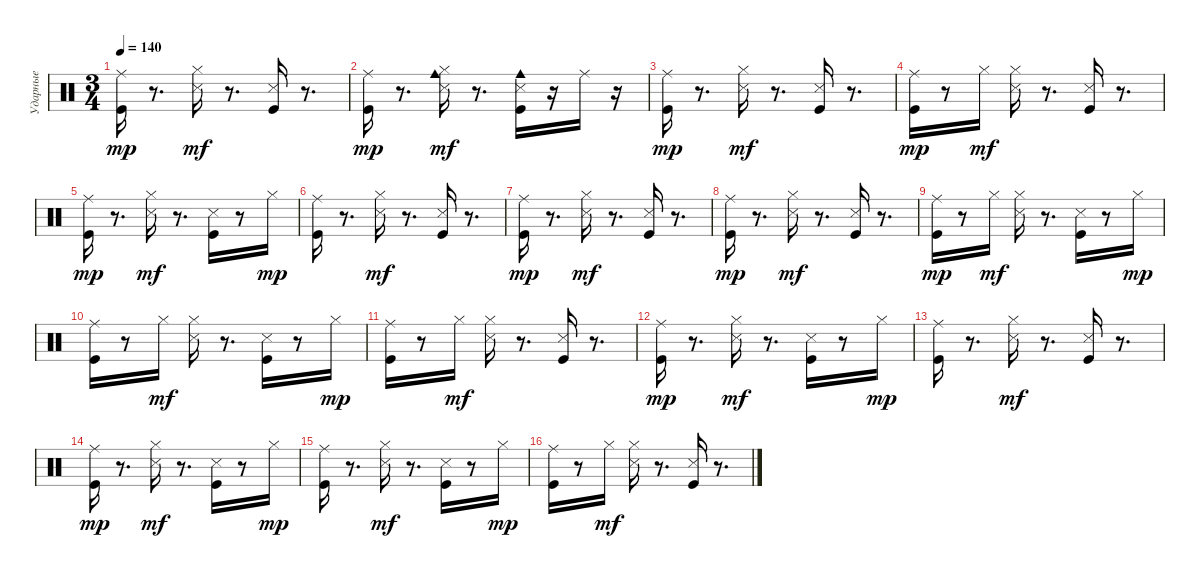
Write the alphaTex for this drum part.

\track ("Ударные" "Ударные") {instrument percussion}
\staff {score}
\articulation defaults
\ts (3 4)
\tempo 140
\clef neutral
\ks c
("Kick (hit)" "Ride (middle)").16{dy mp} r.8{d} ("Hi-Hat (closed)" "Snare (side stick) 3").16{dy mf} r.8{d} ("Kick (hit)" "Snare (side stick) 3").16 r.8{d} |
("Kick (hit)" "Ride (middle)").16{dy mp} r.8{d} ("Hi-Hat (closed)" "Snare (side stick) 3" "Cowbell medium (hit)").16{dy mf} r.8{d} ("Kick (hit)" "Snare (side stick) 3" "Cowbell medium (hit)").16 r.16 "Ride (middle)".16 r.16 |
("Kick (hit)" "Ride (middle)").16{dy mp} r.8{d} ("Hi-Hat (closed)" "Snare (side stick) 3").16{dy mf} r.8{d} ("Kick (hit)" "Snare (side stick) 3").16 r.8{d} |
("Kick (hit)" "Ride (middle)").16{dy mp} r.8 "Hi-Hat (closed)".16{dy mf} ("Hi-Hat (closed)" "Snare (side stick) 3").16 r.8{d} ("Kick (hit)" "Snare (side stick) 3").16 r.8{d} |
("Kick (hit)" "Ride (middle)").16{dy mp} r.8{d} ("Hi-Hat (closed)" "Snare (side stick) 3").16{dy mf} r.8{d} ("Kick (hit)" "Snare (side stick) 3").16 r.8 "Hi-Hat (closed)".16{dy mp} |
("Kick (hit)" "Ride (middle)").16 r.8{d} ("Hi-Hat (closed)" "Snare (side stick) 3").16{dy mf} r.8{d} ("Kick (hit)" "Snare (side stick) 3").16 r.8{d} |
("Kick (hit)" "Ride (middle)").16{dy mp} r.8{d} ("Hi-Hat (closed)" "Snare (side stick) 3").16{dy mf} r.8{d} ("Kick (hit)" "Snare (side stick) 3").16 r.8{d} |
("Kick (hit)" "Ride (middle)").16{dy mp} r.8{d} ("Hi-Hat (closed)" "Snare (side stick) 3").16{dy mf} r.8{d} ("Kick (hit)" "Snare (side stick) 3").16 r.8{d} |
("Kick (hit)" "Ride (middle)").16{dy mp} r.8 "Hi-Hat (closed)".16{dy mf} ("Hi-Hat (closed)" "Snare (side stick) 3").16 r.8{d} ("Kick (hit)" "Snare (side stick) 3").16 r.8 "Hi-Hat (closed)".16{dy mp} |
("Kick (hit)" "Ride (middle)").16 r.8 "Hi-Hat (closed)".16{dy mf} ("Hi-Hat (closed)" "Snare (side stick) 3").16 r.8{d} ("Kick (hit)" "Snare (side stick) 3").16 r.8 "Hi-Hat (closed)".16{dy mp} |
("Kick (hit)" "Ride (middle)").16 r.8 "Hi-Hat (closed)".16{dy mf} ("Hi-Hat (closed)" "Snare (side stick) 3").16 r.8{d} ("Kick (hit)" "Snare (side stick) 3").16 r.8{d} |
("Kick (hit)" "Ride (middle)").16{dy mp} r.8{d} ("Hi-Hat (closed)" "Snare (side stick) 3").16{dy mf} r.8{d} ("Kick (hit)" "Snare (side stick) 3").16 r.8 "Hi-Hat (closed)".16{dy mp} |
("Kick (hit)" "Ride (middle)").16 r.8{d} ("Hi-Hat (closed)" "Snare (side stick) 3").16{dy mf} r.8{d} ("Kick (hit)" "Snare (side stick) 3").16 r.8{d} |
("Kick (hit)" "Ride (middle)").16{dy mp} r.8{d} ("Hi-Hat (closed)" "Snare (side stick) 3").16{dy mf} r.8{d} ("Kick (hit)" "Snare (side stick) 3").16 r.8 "Hi-Hat (closed)".16{dy mp} |
("Kick (hit)" "Ride (middle)").16 r.8{d} ("Hi-Hat (closed)" "Snare (side stick) 3").16{dy mf} r.8{d} ("Kick (hit)" "Snare (side stick) 3").16 r.8 "Hi-Hat (closed)".16{dy mp} |
("Kick (hit)" "Ride (middle)").16 r.8 "Hi-Hat (closed)".16{dy mf} ("Hi-Hat (closed)" "Snare (side stick) 3").16 r.8{d} ("Kick (hit)" "Snare (side stick) 3").16 r.8{d}
